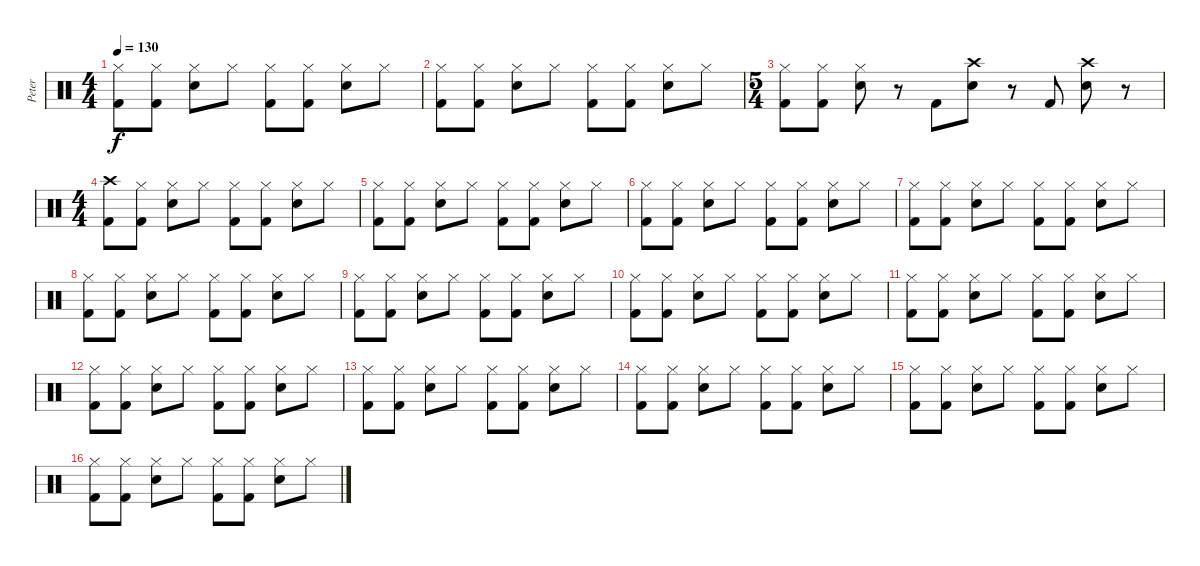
\track ("Peter" "Peter") {instrument percussion}
\staff {score}
\articulation defaults
\ts (4 4)
\tempo 130
\clef neutral
\ks c
("Hi-Hat (closed)" "Kick (hit) 2").8{dy f} ("Hi-Hat (closed)" "Kick (hit) 2").8 ("Hi-Hat (closed)" "Electric Snare (hit)").8 "Hi-Hat (closed)".8 ("Hi-Hat (closed)" "Kick (hit) 2").8 ("Hi-Hat (closed)" "Kick (hit) 2").8 ("Hi-Hat (closed)" "Electric Snare (hit)").8 "Hi-Hat (closed)".8 |
("Hi-Hat (closed)" "Kick (hit) 2").8 ("Hi-Hat (closed)" "Kick (hit) 2").8 ("Hi-Hat (closed)" "Electric Snare (hit)").8 "Hi-Hat (closed)".8 ("Hi-Hat (closed)" "Kick (hit) 2").8 ("Hi-Hat (closed)" "Kick (hit) 2").8 ("Hi-Hat (closed)" "Electric Snare (hit)").8 "Hi-Hat (closed)".8 |
\ts (5 4)
("Hi-Hat (closed)" "Kick (hit) 2").8 ("Hi-Hat (closed)" "Kick (hit) 2").8 ("Hi-Hat (closed)" "Electric Snare (hit)").8 r.8 "Kick (hit) 2".8 ("Crash high (hit)" "Electric Snare (hit)").8 r.8 "Kick (hit) 2".8 ("Crash high (hit)" "Electric Snare (hit)").8 r.8 |
\ts (4 4)
("Crash high (hit)" "Kick (hit) 2").8 ("Hi-Hat (closed)" "Kick (hit) 2").8 ("Hi-Hat (closed)" "Electric Snare (hit)").8 "Hi-Hat (closed)".8 ("Hi-Hat (closed)" "Kick (hit) 2").8 ("Hi-Hat (closed)" "Kick (hit) 2").8 ("Hi-Hat (closed)" "Electric Snare (hit)").8 "Hi-Hat (closed)".8 |
("Hi-Hat (closed)" "Kick (hit) 2").8 ("Hi-Hat (closed)" "Kick (hit) 2").8 ("Hi-Hat (closed)" "Electric Snare (hit)").8 "Hi-Hat (closed)".8 ("Hi-Hat (closed)" "Kick (hit) 2").8 ("Hi-Hat (closed)" "Kick (hit) 2").8 ("Hi-Hat (closed)" "Electric Snare (hit)").8 "Hi-Hat (closed)".8 |
("Hi-Hat (closed)" "Kick (hit) 2").8 ("Hi-Hat (closed)" "Kick (hit) 2").8 ("Hi-Hat (closed)" "Electric Snare (hit)").8 "Hi-Hat (closed)".8 ("Hi-Hat (closed)" "Kick (hit) 2").8 ("Hi-Hat (closed)" "Kick (hit) 2").8 ("Hi-Hat (closed)" "Electric Snare (hit)").8 "Hi-Hat (closed)".8 |
("Hi-Hat (closed)" "Kick (hit) 2").8 ("Hi-Hat (closed)" "Kick (hit) 2").8 ("Hi-Hat (closed)" "Electric Snare (hit)").8 "Hi-Hat (closed)".8 ("Hi-Hat (closed)" "Kick (hit) 2").8 ("Hi-Hat (closed)" "Kick (hit) 2").8 ("Hi-Hat (closed)" "Electric Snare (hit)").8 "Hi-Hat (closed)".8 |
("Hi-Hat (closed)" "Kick (hit) 2").8 ("Hi-Hat (closed)" "Kick (hit) 2").8 ("Hi-Hat (closed)" "Electric Snare (hit)").8 "Hi-Hat (closed)".8 ("Hi-Hat (closed)" "Kick (hit) 2").8 ("Hi-Hat (closed)" "Kick (hit) 2").8 ("Hi-Hat (closed)" "Electric Snare (hit)").8 "Hi-Hat (closed)".8 |
("Hi-Hat (closed)" "Kick (hit) 2").8 ("Hi-Hat (closed)" "Kick (hit) 2").8 ("Hi-Hat (closed)" "Electric Snare (hit)").8 "Hi-Hat (closed)".8 ("Hi-Hat (closed)" "Kick (hit) 2").8 ("Hi-Hat (closed)" "Kick (hit) 2").8 ("Hi-Hat (closed)" "Electric Snare (hit)").8 "Hi-Hat (closed)".8 |
("Hi-Hat (closed)" "Kick (hit) 2").8 ("Hi-Hat (closed)" "Kick (hit) 2").8 ("Hi-Hat (closed)" "Electric Snare (hit)").8 "Hi-Hat (closed)".8 ("Hi-Hat (closed)" "Kick (hit) 2").8 ("Hi-Hat (closed)" "Kick (hit) 2").8 ("Hi-Hat (closed)" "Electric Snare (hit)").8 "Hi-Hat (closed)".8 |
("Hi-Hat (closed)" "Kick (hit) 2").8 ("Hi-Hat (closed)" "Kick (hit) 2").8 ("Hi-Hat (closed)" "Electric Snare (hit)").8 "Hi-Hat (closed)".8 ("Hi-Hat (closed)" "Kick (hit) 2").8 ("Hi-Hat (closed)" "Kick (hit) 2").8 ("Hi-Hat (closed)" "Electric Snare (hit)").8 "Hi-Hat (closed)".8 |
("Hi-Hat (closed)" "Kick (hit) 2").8 ("Hi-Hat (closed)" "Kick (hit) 2").8 ("Hi-Hat (closed)" "Electric Snare (hit)").8 "Hi-Hat (closed)".8 ("Hi-Hat (closed)" "Kick (hit) 2").8 ("Hi-Hat (closed)" "Kick (hit) 2").8 ("Hi-Hat (closed)" "Electric Snare (hit)").8 "Hi-Hat (closed)".8 |
("Hi-Hat (closed)" "Kick (hit) 2").8 ("Hi-Hat (closed)" "Kick (hit) 2").8 ("Hi-Hat (closed)" "Electric Snare (hit)").8 "Hi-Hat (closed)".8 ("Hi-Hat (closed)" "Kick (hit) 2").8 ("Hi-Hat (closed)" "Kick (hit) 2").8 ("Hi-Hat (closed)" "Electric Snare (hit)").8 "Hi-Hat (closed)".8 |
("Hi-Hat (closed)" "Kick (hit) 2").8 ("Hi-Hat (closed)" "Kick (hit) 2").8 ("Hi-Hat (closed)" "Electric Snare (hit)").8 "Hi-Hat (closed)".8 ("Hi-Hat (closed)" "Kick (hit) 2").8 ("Hi-Hat (closed)" "Kick (hit) 2").8 ("Hi-Hat (closed)" "Electric Snare (hit)").8 "Hi-Hat (closed)".8 |
("Hi-Hat (closed)" "Kick (hit) 2").8 ("Hi-Hat (closed)" "Kick (hit) 2").8 ("Hi-Hat (closed)" "Electric Snare (hit)").8 "Hi-Hat (closed)".8 ("Hi-Hat (closed)" "Kick (hit) 2").8 ("Hi-Hat (closed)" "Kick (hit) 2").8 ("Hi-Hat (closed)" "Electric Snare (hit)").8 "Hi-Hat (closed)".8 |
("Hi-Hat (closed)" "Kick (hit) 2").8 ("Hi-Hat (closed)" "Kick (hit) 2").8 ("Hi-Hat (closed)" "Electric Snare (hit)").8 "Hi-Hat (closed)".8 ("Hi-Hat (closed)" "Kick (hit) 2").8 ("Hi-Hat (closed)" "Kick (hit) 2").8 ("Hi-Hat (closed)" "Electric Snare (hit)").8 "Hi-Hat (closed)".8
